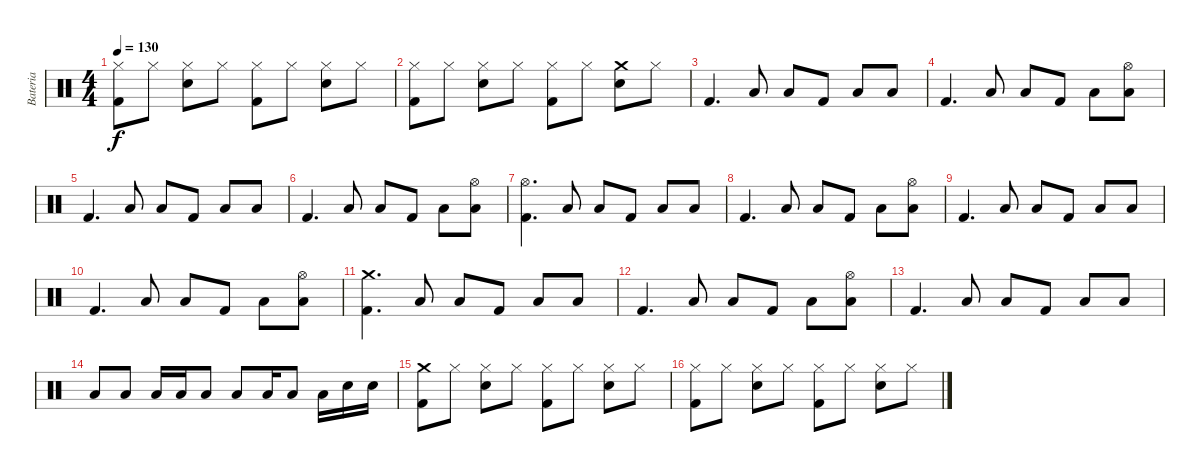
\track ("Bateria" "Bateria") {instrument percussion}
\staff {score}
\articulation defaults
\ts (4 4)
\tempo 130
\clef neutral
\ks c
("Hi-Hat (closed)" "Kick (hit) 2").8{dy f} "Hi-Hat (closed)".8 ("Hi-Hat (closed)" "Electric Snare (hit)").8 "Hi-Hat (closed)".8 ("Hi-Hat (closed)" "Kick (hit) 2").8 "Hi-Hat (closed)".8 ("Hi-Hat (closed)" "Electric Snare (hit)").8 "Hi-Hat (closed)".8 |
("Hi-Hat (closed)" "Kick (hit) 2").8 "Hi-Hat (closed)".8 ("Hi-Hat (closed)" "Electric Snare (hit)").8 "Hi-Hat (closed)".8 ("Hi-Hat (closed)" "Kick (hit) 2").8 "Hi-Hat (closed)".8 ("Crash medium (hit)" "Electric Snare (hit)").8 "Hi-Hat (closed)".8 |
"Kick (hit) 2".4{d} "Low Tom (hit)".8 "Low Tom (hit)".8 "Kick (hit) 2".8 "Low Tom (hit)".8 "Low Tom (hit)".8 |
"Kick (hit) 2".4{d} "Low Tom (hit)".8 "Low Tom (hit)".8 "Kick (hit) 2".8 "Low Tom (hit)".8 ("Hi-Hat (open)" "Low Tom (hit)").8 |
"Kick (hit) 2".4{d} "Low Tom (hit)".8 "Low Tom (hit)".8 "Kick (hit) 2".8 "Low Tom (hit)".8 "Low Tom (hit)".8 |
"Kick (hit) 2".4{d} "Low Tom (hit)".8 "Low Tom (hit)".8 "Kick (hit) 2".8 "Low Tom (hit)".8 ("Hi-Hat (open)" "Low Tom (hit)").8 |
("Hi-Hat (open)" "Kick (hit) 2").4{d} "Low Tom (hit)".8 "Low Tom (hit)".8 "Kick (hit) 2".8 "Low Tom (hit)".8 "Low Tom (hit)".8 |
"Kick (hit) 2".4{d} "Low Tom (hit)".8 "Low Tom (hit)".8 "Kick (hit) 2".8 "Low Tom (hit)".8 ("Hi-Hat (open)" "Low Tom (hit)").8 |
"Kick (hit) 2".4{d} "Low Tom (hit)".8 "Low Tom (hit)".8 "Kick (hit) 2".8 "Low Tom (hit)".8 "Low Tom (hit)".8 |
"Kick (hit) 2".4{d} "Low Tom (hit)".8 "Low Tom (hit)".8 "Kick (hit) 2".8 "Low Tom (hit)".8 ("Hi-Hat (open)" "Low Tom (hit)").8 |
("Crash medium (hit)" "Kick (hit) 2").4{d} "Low Tom (hit)".8 "Low Tom (hit)".8 "Kick (hit) 2".8 "Low Tom (hit)".8 "Low Tom (hit)".8 |
"Kick (hit) 2".4{d} "Low Tom (hit)".8 "Low Tom (hit)".8 "Kick (hit) 2".8 "Low Tom (hit)".8 ("Hi-Hat (open)" "Low Tom (hit)").8 |
"Kick (hit) 2".4{d} "Low Tom (hit)".8 "Low Tom (hit)".8 "Kick (hit) 2".8 "Low Tom (hit)".8 "Low Tom (hit)".8 |
"Low Tom (hit)".8 "Low Tom (hit)".8 "Low Tom (hit)".16 "Low Tom (hit)".16 "Low Tom (hit)".8 "Low Tom (hit)".8 "Low Tom (hit)".16 "Low Tom (hit)".8 "Low Tom (hit)".16 "Electric Snare (hit)".16 "Electric Snare (hit)".16 |
("Crash medium (hit)" "Kick (hit) 2").8 "Hi-Hat (closed)".8 ("Hi-Hat (closed)" "Electric Snare (hit)").8 "Hi-Hat (closed)".8 ("Hi-Hat (closed)" "Kick (hit) 2").8 "Hi-Hat (closed)".8 ("Hi-Hat (closed)" "Electric Snare (hit)").8 "Hi-Hat (closed)".8 |
("Hi-Hat (closed)" "Kick (hit) 2").8 "Hi-Hat (closed)".8 ("Hi-Hat (closed)" "Electric Snare (hit)").8 "Hi-Hat (closed)".8 ("Hi-Hat (closed)" "Kick (hit) 2").8 "Hi-Hat (closed)".8 ("Hi-Hat (closed)" "Electric Snare (hit)").8 "Hi-Hat (closed)".8
